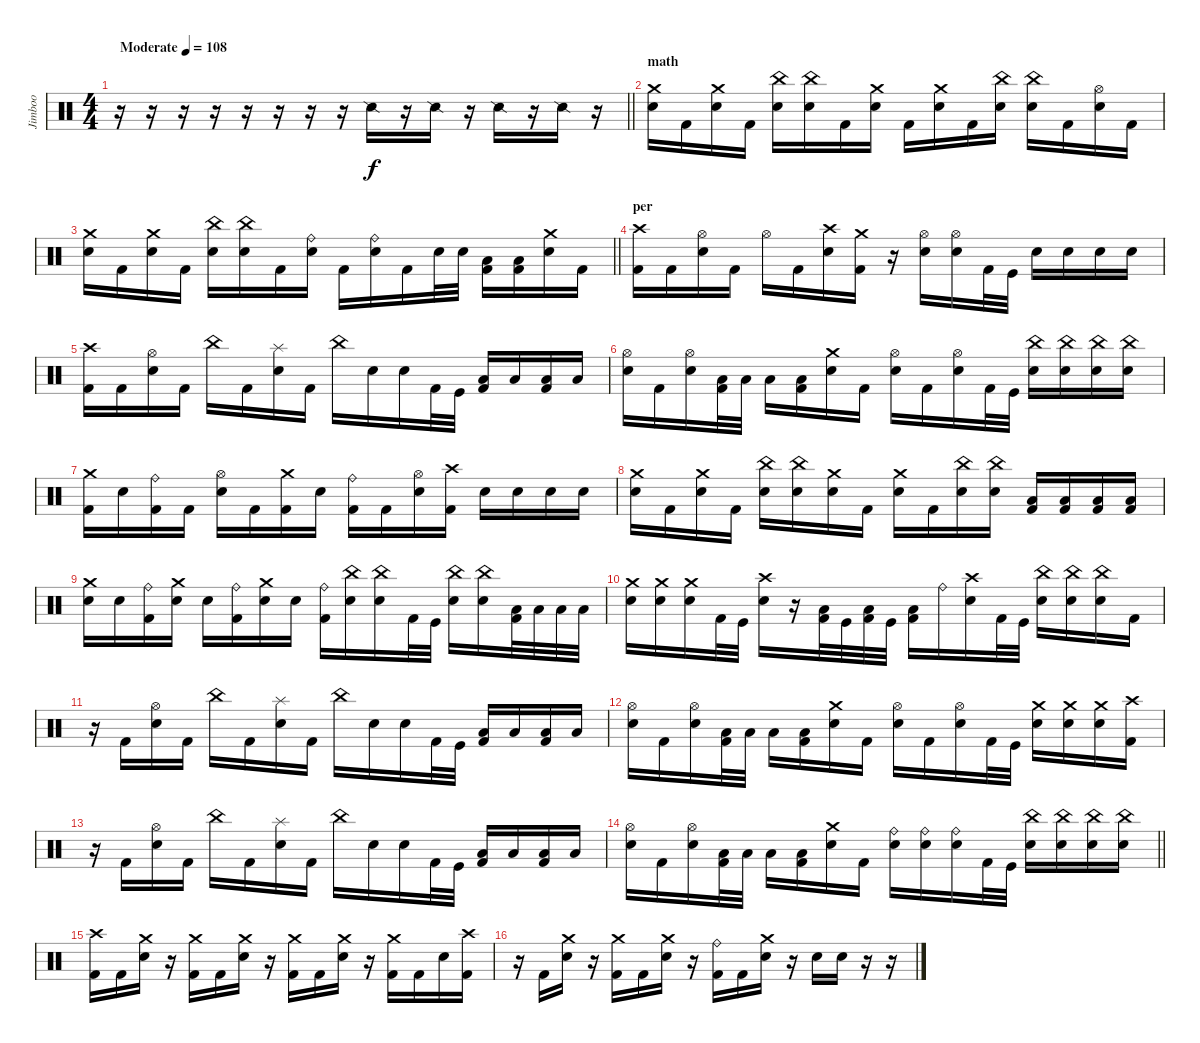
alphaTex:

\track ("Jimboo" "Jimboo") {instrument percussion}
\staff
\articulation defaults
\ts (4 4)
\tempo (108 "Moderate")
\clef neutral
\barLineRight lightlight
\ks c
r.16{dy f} r.16 r.16 r.16 r.16 r.16 r.16 r.16 "Snare (side stick) 2".16 r.16 "Snare (side stick) 2".16 r.16 "Snare (side stick) 2".16 r.16 "Snare (side stick) 2".16 r.16 |
\section ("" "math")
("Electric Snare (hit)" "Crash medium (hit)").16 "Kick (hit) 2".16 ("Electric Snare (hit)" "Crash medium (hit)").16 "Kick (hit) 2".16 ("Electric Snare (hit)" "China (hit)").16 ("Electric Snare (hit)" "China (hit)").16 "Kick (hit) 2".16 ("Electric Snare (hit)" "Crash medium (hit)").16 "Kick (hit) 2".16 ("Electric Snare (hit)" "Crash medium (hit)").16 "Kick (hit) 2".16 ("Electric Snare (hit)" "China (hit)").16 ("Electric Snare (hit)" "China (hit)").16 "Kick (hit) 2".16 ("Electric Snare (hit)" "Hi-Hat (open)").16 "Kick (hit) 2".16 |
\barLineRight lightlight
("Electric Snare (hit)" "Crash medium (hit)").16 "Kick (hit) 2".16 ("Electric Snare (hit)" "Crash medium (hit)").16 "Kick (hit) 2".16 ("Electric Snare (hit)" "China (hit)").16 ("Electric Snare (hit)" "China (hit)").16 "Kick (hit) 2".16 ("Electric Snare (hit)" "Ride (bell)").16 "Kick (hit) 2".16 ("Electric Snare (hit)" "Ride (bell)").16 "Kick (hit) 2".16 "Electric Snare (hit)".32 "Electric Snare (hit)".32 ("Kick (hit) 2" "Low Tom (hit)").16 ("Kick (hit) 2" "Low Floor Tom (hit)").16 ("Electric Snare (hit)" "Crash medium (hit)").16 "Kick (hit) 2".16 |
\section ("" "per")
("Kick (hit) 2" "Crash high (hit)").16 "Kick (hit) 2".16 ("Electric Snare (hit)" "Hi-Hat (open)").16 "Kick (hit) 2".16 "Hi-Hat (open)".16 "Kick (hit) 2".16 ("Electric Snare (hit)" "Crash high (hit)").16 ("Kick (hit) 2" "Crash medium (hit)").16 r.16 ("Electric Snare (hit)" "Hi-Hat (open)").16 ("Electric Snare (hit)" "Hi-Hat (open)").16 "Kick (hit) 2".32 "Kick (hit)".32 "Electric Snare (hit)".16 "Electric Snare (hit)".16 "Electric Snare (hit)".16 "Electric Snare (hit)".16 |
("Kick (hit) 2" "Crash high (hit)").16 "Kick (hit) 2".16 ("Electric Snare (hit)" "Hi-Hat (open)").16 "Kick (hit) 2".16 "China (hit)".16 "Kick (hit) 2".16 ("Electric Snare (hit)" "Splash (hit)").16 "Kick (hit) 2".16 "China (hit)".16 "Electric Snare (hit)".16 "Electric Snare (hit)".16 "Kick (hit) 2".32 "Kick (hit)".32 ("Low Tom (hit)" "Kick (hit) 2").16 "Low Tom (hit)".16 ("Low Floor Tom (hit)" "Kick (hit) 2").16 "Low Floor Tom (hit)".16 |
("Electric Snare (hit)" "Hi-Hat (open)").16 "Kick (hit) 2".16 ("Electric Snare (hit)" "Hi-Hat (open)").16 ("Kick (hit) 2" "Low Tom (hit)").32 "Low Tom (hit)".32 "Low Floor Tom (hit)".16 ("Kick (hit) 2" "Low Floor Tom (hit)").16 ("Electric Snare (hit)" "Crash medium (hit)").16 "Kick (hit) 2".16 ("Electric Snare (hit)" "Hi-Hat (open)").16 "Kick (hit) 2".16 ("Electric Snare (hit)" "Hi-Hat (open)").16 "Kick (hit) 2".32 "Kick (hit)".32 ("Electric Snare (hit)" "China (hit)").16 ("Electric Snare (hit)" "China (hit)").16 ("Electric Snare (hit)" "China (hit)").16 ("Electric Snare (hit)" "China (hit)").16 |
("Kick (hit) 2" "Crash medium (hit)").16 "Electric Snare (hit)".16 ("Kick (hit) 2" "Ride (bell)").16 "Kick (hit) 2".16 ("Electric Snare (hit)" "Hi-Hat (open)").16 "Kick (hit) 2".16 ("Kick (hit) 2" "Crash medium (hit)").16 "Electric Snare (hit)".16 ("Kick (hit) 2" "Ride (bell)").16 "Kick (hit) 2".16 ("Electric Snare (hit)" "Hi-Hat (open)").16 ("Kick (hit) 2" "Crash high (hit)").16 "Electric Snare (hit)".16 "Electric Snare (hit)".16 "Electric Snare (hit)".16 "Electric Snare (hit)".16 |
("Electric Snare (hit)" "Crash medium (hit)").16 "Kick (hit) 2".16 ("Electric Snare (hit)" "Crash medium (hit)").16 "Kick (hit) 2".16 ("Electric Snare (hit)" "China (hit)").16 ("Electric Snare (hit)" "China (hit)").16 ("Electric Snare (hit)" "Crash medium (hit)").16 "Kick (hit) 2".16 ("Electric Snare (hit)" "Crash medium (hit)").16 "Kick (hit) 2".16 ("Electric Snare (hit)" "China (hit)").16 ("Electric Snare (hit)" "China (hit)").16 ("Low Tom (hit)" "Kick (hit) 2").16 ("Low Tom (hit)" "Kick (hit) 2").16 ("Low Floor Tom (hit)" "Kick (hit) 2").16 ("Low Floor Tom (hit)" "Kick (hit) 2").16 |
("Electric Snare (hit)" "Crash medium (hit)").16 "Electric Snare (hit)".16 ("Kick (hit) 2" "Ride (bell)").16 ("Electric Snare (hit)" "Crash medium (hit)").16 "Electric Snare (hit)".16 ("Kick (hit) 2" "Ride (bell)").16 ("Electric Snare (hit)" "Crash medium (hit)").16 "Electric Snare (hit)".16 ("Kick (hit) 2" "Ride (bell)").16 ("Electric Snare (hit)" "China (hit)").16 ("Electric Snare (hit)" "China (hit)").16 "Kick (hit) 2".32 "Kick (hit)".32 ("Electric Snare (hit)" "China (hit)").16 ("Electric Snare (hit)" "China (hit)").16 ("Low Floor Tom (hit)" "Kick (hit) 2").32 "Low Floor Tom (hit)".32 "Low Floor Tom (hit)".32 "Low Floor Tom (hit)".32 |
("Electric Snare (hit)" "Crash medium (hit)").16 ("Electric Snare (hit)" "Crash medium (hit)").16 ("Electric Snare (hit)" "Crash medium (hit)").16 "Kick (hit) 2".32 "Kick (hit)".32 ("Electric Snare (hit)" "Crash high (hit)").16 r.16 ("Kick (hit) 2" "Low Tom (hit)").32 "Kick (hit)".32 ("Kick (hit) 2" "Low Tom (hit)").32 "Kick (hit)".32 ("Kick (hit) 2" "Low Floor Tom (hit)").16 "Ride (bell)".16 ("Electric Snare (hit)" "Crash high (hit)").16 "Kick (hit) 2".32 "Kick (hit)".32 ("Electric Snare (hit)" "China (hit)").16 ("Electric Snare (hit)" "China (hit)").16 ("Electric Snare (hit)" "China (hit)").16 "Kick (hit) 2".16 |
r.16 "Kick (hit) 2".16 ("Electric Snare (hit)" "Hi-Hat (open)").16 "Kick (hit) 2".16 "China (hit)".16 "Kick (hit) 2".16 ("Electric Snare (hit)" "Splash (hit)").16 "Kick (hit) 2".16 "China (hit)".16 "Electric Snare (hit)".16 "Electric Snare (hit)".16 "Kick (hit) 2".32 "Kick (hit)".32 ("Low Tom (hit)" "Kick (hit) 2").16 "Low Tom (hit)".16 ("Low Floor Tom (hit)" "Kick (hit) 2").16 "Low Floor Tom (hit)".16 |
("Electric Snare (hit)" "Hi-Hat (open)").16 "Kick (hit) 2".16 ("Electric Snare (hit)" "Hi-Hat (open)").16 ("Kick (hit) 2" "Low Tom (hit)").32 "Low Tom (hit)".32 "Low Floor Tom (hit)".16 ("Kick (hit) 2" "Low Floor Tom (hit)").16 ("Electric Snare (hit)" "Crash medium (hit)").16 "Kick (hit) 2".16 ("Electric Snare (hit)" "Hi-Hat (open)").16 "Kick (hit) 2".16 ("Electric Snare (hit)" "Hi-Hat (open)").16 "Kick (hit) 2".32 "Kick (hit)".32 ("Electric Snare (hit)" "Crash medium (hit)").16 ("Electric Snare (hit)" "Crash medium (hit)").16 ("Electric Snare (hit)" "Crash medium (hit)").16 ("Kick (hit) 2" "Crash high (hit)").16 |
r.16 "Kick (hit) 2".16 ("Electric Snare (hit)" "Hi-Hat (open)").16 "Kick (hit) 2".16 "China (hit)".16 "Kick (hit) 2".16 ("Electric Snare (hit)" "Splash (hit)").16 "Kick (hit) 2".16 "China (hit)".16 "Electric Snare (hit)".16 "Electric Snare (hit)".16 "Kick (hit) 2".32 "Kick (hit)".32 ("Low Tom (hit)" "Kick (hit) 2").16 "Low Tom (hit)".16 ("Low Floor Tom (hit)" "Kick (hit) 2").16 "Low Floor Tom (hit)".16 |
\barLineRight lightlight
("Electric Snare (hit)" "Hi-Hat (open)").16 "Kick (hit) 2".16 ("Electric Snare (hit)" "Hi-Hat (open)").16 ("Kick (hit) 2" "Low Tom (hit)").32 "Low Tom (hit)".32 "Low Floor Tom (hit)".16 ("Kick (hit) 2" "Low Floor Tom (hit)").16 ("Electric Snare (hit)" "Crash medium (hit)").16 "Kick (hit) 2".16 ("Electric Snare (hit)" "Ride (bell)").16 ("Electric Snare (hit)" "Ride (bell)").16 ("Electric Snare (hit)" "Ride (bell)").16 "Kick (hit) 2".32 "Kick (hit)".32 ("Electric Snare (hit)" "China (hit)").16 ("Electric Snare (hit)" "China (hit)").16 ("Electric Snare (hit)" "China (hit)").16 ("Electric Snare (hit)" "China (hit)").16 |
("Kick (hit) 2" "Crash high (hit)").16 "Kick (hit) 2".16 ("Electric Snare (hit)" "Crash medium (hit)").16 r.16 ("Kick (hit) 2" "Crash medium (hit)").16 "Kick (hit) 2".16 ("Electric Snare (hit)" "Crash medium (hit)").16 r.16 ("Kick (hit) 2" "Crash medium (hit)").16 "Kick (hit) 2".16 ("Electric Snare (hit)" "Crash medium (hit)").16 r.16 ("Kick (hit) 2" "Crash medium (hit)").16 "Kick (hit) 2".16 "Electric Snare (hit)".16 ("Kick (hit) 2" "Crash high (hit)").16 |
r.16 "Kick (hit) 2".16 ("Electric Snare (hit)" "Crash medium (hit)").16 r.16 ("Kick (hit) 2" "Crash medium (hit)").16 "Kick (hit) 2".16 ("Electric Snare (hit)" "Crash medium (hit)").16 r.16 ("Kick (hit) 2" "Ride (bell)").16 "Kick (hit) 2".16 ("Electric Snare (hit)" "Crash medium (hit)").16 r.16 "Electric Snare (hit)".16 "Electric Snare (hit)".16 r.16 r.16
